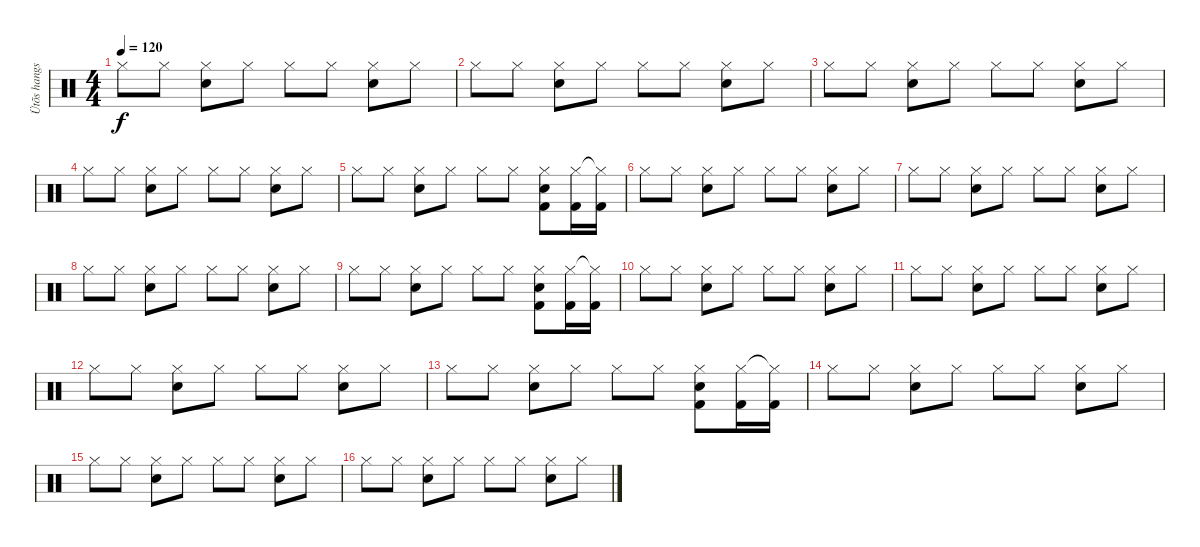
\track ("Ütõs hangszer" "Ütõs hangs") {instrument percussion}
\staff {score}
\articulation defaults
\ts (4 4)
\tempo 120
\clef neutral
\ks c "Hi-Hat (closed)".8{dy f} "Hi-Hat (closed)".8
("Hi-Hat (closed)" "Snare (hit) 2").8 "Hi-Hat (closed)".8 "Hi-Hat (closed)".8 "Hi-Hat (closed)".8 ("Hi-Hat (closed)" "Snare (hit) 2").8 "Hi-Hat (closed)".8 |
"Hi-Hat (closed)".8 "Hi-Hat (closed)".8 ("Hi-Hat (closed)" "Snare (hit) 2").8 "Hi-Hat (closed)".8 "Hi-Hat (closed)".8 "Hi-Hat (closed)".8 ("Hi-Hat (closed)" "Snare (hit) 2").8 "Hi-Hat (closed)".8 |
"Hi-Hat (closed)".8 "Hi-Hat (closed)".8 ("Hi-Hat (closed)" "Snare (hit) 2").8 "Hi-Hat (closed)".8 "Hi-Hat (closed)".8 "Hi-Hat (closed)".8 ("Hi-Hat (closed)" "Snare (hit) 2").8 "Hi-Hat (closed)".8 |
"Hi-Hat (closed)".8 "Hi-Hat (closed)".8 ("Hi-Hat (closed)" "Snare (hit) 2").8 "Hi-Hat (closed)".8 "Hi-Hat (closed)".8 "Hi-Hat (closed)".8 ("Hi-Hat (closed)" "Snare (hit) 2").8 "Hi-Hat (closed)".8 |
"Hi-Hat (closed)".8 "Hi-Hat (closed)".8 ("Hi-Hat (closed)" "Snare (hit) 2").8 "Hi-Hat (closed)".8 "Hi-Hat (closed)".8 "Hi-Hat (closed)".8 ("Hi-Hat (closed)" "Snare (hit) 2" "Kick (hit) 2").8 ("Hi-Hat (closed)" "Kick (hit) 2").16 ("Hi-Hat (closed)"{t} "Kick (hit) 2").16 |
"Hi-Hat (closed)".8 "Hi-Hat (closed)".8 ("Hi-Hat (closed)" "Snare (hit) 2").8 "Hi-Hat (closed)".8 "Hi-Hat (closed)".8 "Hi-Hat (closed)".8 ("Hi-Hat (closed)" "Snare (hit) 2").8 "Hi-Hat (closed)".8 |
"Hi-Hat (closed)".8 "Hi-Hat (closed)".8 ("Hi-Hat (closed)" "Snare (hit) 2").8 "Hi-Hat (closed)".8 "Hi-Hat (closed)".8 "Hi-Hat (closed)".8 ("Hi-Hat (closed)" "Snare (hit) 2").8 "Hi-Hat (closed)".8 |
"Hi-Hat (closed)".8 "Hi-Hat (closed)".8 ("Hi-Hat (closed)" "Snare (hit) 2").8 "Hi-Hat (closed)".8 "Hi-Hat (closed)".8 "Hi-Hat (closed)".8 ("Hi-Hat (closed)" "Snare (hit) 2").8 "Hi-Hat (closed)".8 |
"Hi-Hat (closed)".8 "Hi-Hat (closed)".8 ("Hi-Hat (closed)" "Snare (hit) 2").8 "Hi-Hat (closed)".8 "Hi-Hat (closed)".8 "Hi-Hat (closed)".8 ("Hi-Hat (closed)" "Snare (hit) 2" "Kick (hit) 2").8 ("Hi-Hat (closed)" "Kick (hit) 2").16 ("Hi-Hat (closed)"{t} "Kick (hit) 2").16 |
"Hi-Hat (closed)".8 "Hi-Hat (closed)".8 ("Hi-Hat (closed)" "Snare (hit) 2").8 "Hi-Hat (closed)".8 "Hi-Hat (closed)".8 "Hi-Hat (closed)".8 ("Hi-Hat (closed)" "Snare (hit) 2").8 "Hi-Hat (closed)".8 |
"Hi-Hat (closed)".8 "Hi-Hat (closed)".8 ("Hi-Hat (closed)" "Snare (hit) 2").8 "Hi-Hat (closed)".8 "Hi-Hat (closed)".8 "Hi-Hat (closed)".8 ("Hi-Hat (closed)" "Snare (hit) 2").8 "Hi-Hat (closed)".8 |
"Hi-Hat (closed)".8 "Hi-Hat (closed)".8 ("Hi-Hat (closed)" "Snare (hit) 2").8 "Hi-Hat (closed)".8 "Hi-Hat (closed)".8 "Hi-Hat (closed)".8 ("Hi-Hat (closed)" "Snare (hit) 2").8 "Hi-Hat (closed)".8 |
"Hi-Hat (closed)".8 "Hi-Hat (closed)".8 ("Hi-Hat (closed)" "Snare (hit) 2").8 "Hi-Hat (closed)".8 "Hi-Hat (closed)".8 "Hi-Hat (closed)".8 ("Hi-Hat (closed)" "Snare (hit) 2" "Kick (hit) 2").8 ("Hi-Hat (closed)" "Kick (hit) 2").16 ("Hi-Hat (closed)"{t} "Kick (hit) 2").16 |
"Hi-Hat (closed)".8 "Hi-Hat (closed)".8 ("Hi-Hat (closed)" "Snare (hit) 2").8 "Hi-Hat (closed)".8 "Hi-Hat (closed)".8 "Hi-Hat (closed)".8 ("Hi-Hat (closed)" "Snare (hit) 2").8 "Hi-Hat (closed)".8 |
"Hi-Hat (closed)".8 "Hi-Hat (closed)".8 ("Hi-Hat (closed)" "Snare (hit) 2").8 "Hi-Hat (closed)".8 "Hi-Hat (closed)".8 "Hi-Hat (closed)".8 ("Hi-Hat (closed)" "Snare (hit) 2").8 "Hi-Hat (closed)".8 |
"Hi-Hat (closed)".8 "Hi-Hat (closed)".8 ("Hi-Hat (closed)" "Snare (hit) 2").8 "Hi-Hat (closed)".8 "Hi-Hat (closed)".8 "Hi-Hat (closed)".8 ("Hi-Hat (closed)" "Snare (hit) 2").8 "Hi-Hat (closed)".8
